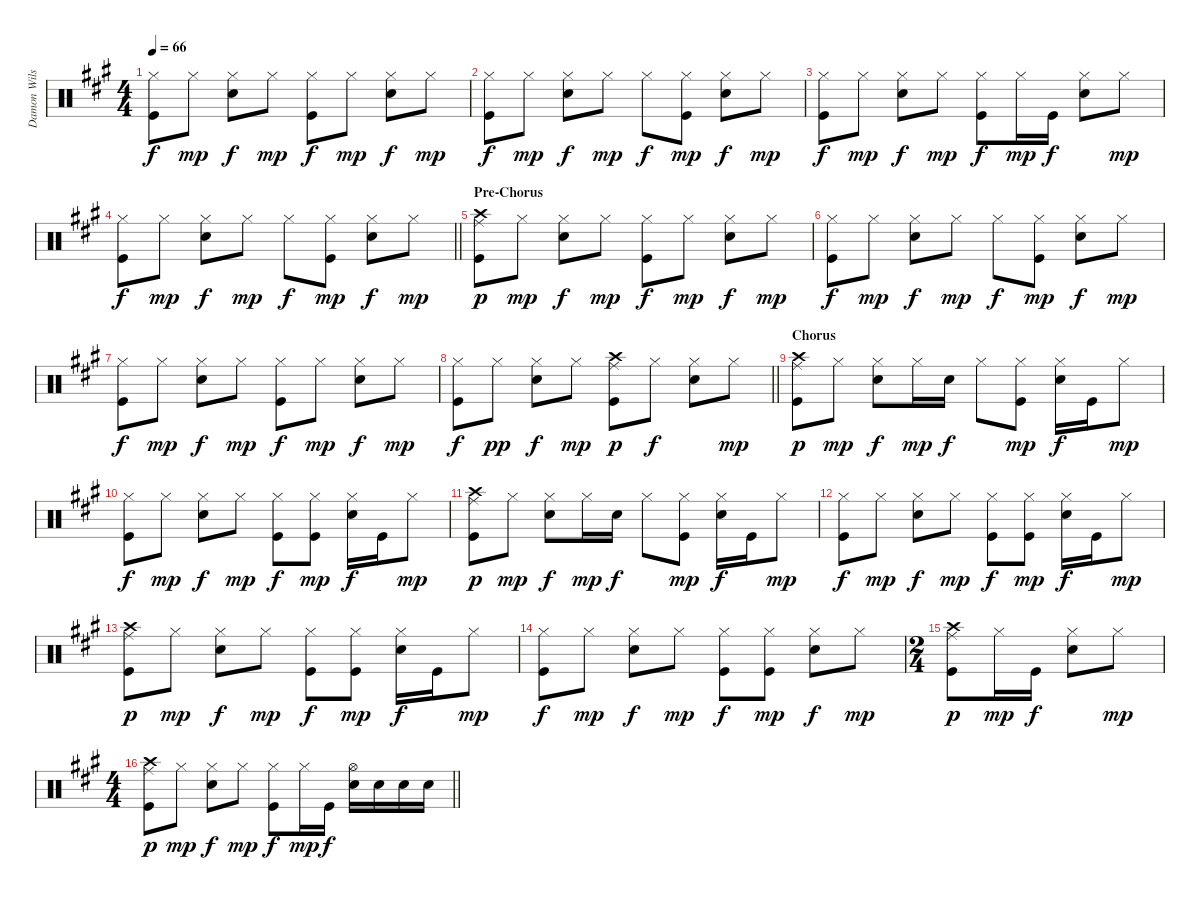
\track ("Damon Wilson" "Damon Wils") {instrument percussion}
\staff {score}
\articulation defaults
\ts (4 4)
\tempo 66
\clef neutral
\ks f#minor
("Hi-Hat (closed)" "Kick (hit)").8{dy f} "Hi-Hat (closed)".8{dy mp} ("Hi-Hat (closed)" "Electric Snare (hit)").8{dy f} "Hi-Hat (closed)".8{dy mp} ("Hi-Hat (closed)" "Kick (hit)").8{dy f} "Hi-Hat (closed)".8{dy mp} ("Hi-Hat (closed)" "Electric Snare (hit)").8{dy f} "Hi-Hat (closed)".8{dy mp} |
("Hi-Hat (closed)" "Kick (hit)").8{dy f} "Hi-Hat (closed)".8{dy mp} ("Hi-Hat (closed)" "Electric Snare (hit)").8{dy f} "Hi-Hat (closed)".8{dy mp} "Hi-Hat (closed)".8{dy f} ("Hi-Hat (closed)" "Kick (hit)").8{dy mp} ("Hi-Hat (closed)" "Electric Snare (hit)").8{dy f} "Hi-Hat (closed)".8{dy mp} |
("Hi-Hat (closed)" "Kick (hit)").8{dy f} "Hi-Hat (closed)".8{dy mp} ("Hi-Hat (closed)" "Electric Snare (hit)").8{dy f} "Hi-Hat (closed)".8{dy mp} ("Hi-Hat (closed)" "Kick (hit)").8{dy f} "Hi-Hat (closed)".16{dy mp} "Kick (hit)".16{dy f} ("Hi-Hat (closed)" "Electric Snare (hit)").8 "Hi-Hat (closed)".8{dy mp} |
\barLineRight lightlight
("Hi-Hat (closed)" "Kick (hit)").8{dy f} "Hi-Hat (closed)".8{dy mp} ("Hi-Hat (closed)" "Electric Snare (hit)").8{dy f} "Hi-Hat (closed)".8{dy mp} "Hi-Hat (closed)".8{dy f} ("Hi-Hat (closed)" "Kick (hit)").8{dy mp} ("Hi-Hat (closed)" "Electric Snare (hit)").8{dy f} "Hi-Hat (closed)".8{dy mp} |
\section ("" "Pre-Chorus")
("Ride (middle)" "Crash high (hit)" "Kick (hit)").8{dy p} "Hi-Hat (closed)".8{dy mp} ("Hi-Hat (closed)" "Electric Snare (hit)").8{dy f} "Hi-Hat (closed)".8{dy mp} ("Hi-Hat (closed)" "Kick (hit)").8{dy f} "Hi-Hat (closed)".8{dy mp} ("Hi-Hat (closed)" "Electric Snare (hit)").8{dy f} "Hi-Hat (closed)".8{dy mp} |
("Hi-Hat (closed)" "Kick (hit)").8{dy f} "Hi-Hat (closed)".8{dy mp} ("Hi-Hat (closed)" "Electric Snare (hit)").8{dy f} "Hi-Hat (closed)".8{dy mp} "Hi-Hat (closed)".8{dy f} ("Hi-Hat (closed)" "Kick (hit)").8{dy mp} ("Hi-Hat (closed)" "Electric Snare (hit)").8{dy f} "Hi-Hat (closed)".8{dy mp} |
("Hi-Hat (closed)" "Kick (hit)").8{dy f} "Hi-Hat (closed)".8{dy mp} ("Hi-Hat (closed)" "Electric Snare (hit)").8{dy f} "Hi-Hat (closed)".8{dy mp} ("Hi-Hat (closed)" "Kick (hit)").8{dy f} "Hi-Hat (closed)".8{dy mp} ("Hi-Hat (closed)" "Electric Snare (hit)").8{dy f} "Hi-Hat (closed)".8{dy mp} |
\barLineRight lightlight
("Hi-Hat (closed)" "Kick (hit)").8{dy f} "Hi-Hat (closed)".8{dy pp} ("Hi-Hat (closed)" "Electric Snare (hit)").8{dy f} "Hi-Hat (closed)".8{dy mp} ("Ride (middle)" "Crash high (hit)" "Kick (hit)").8{dy p} "Hi-Hat (closed)".8{dy f} ("Hi-Hat (closed)" "Electric Snare (hit)").8 "Hi-Hat (closed)".8{dy mp} |
\section ("" "Chorus")
("Ride (middle)" "Crash high (hit)" "Kick (hit)").8{dy p} "Hi-Hat (closed)".8{dy mp} ("Hi-Hat (closed)" "Electric Snare (hit)").8{dy f} "Hi-Hat (closed)".16{dy mp} "Electric Snare (hit)".16{dy f} "Hi-Hat (closed)".8 ("Hi-Hat (closed)" "Kick (hit)").8{dy mp} ("Hi-Hat (closed)" "Electric Snare (hit)").16{dy f} "Kick (hit)".16 "Hi-Hat (closed)".8{dy mp} |
("Hi-Hat (closed)" "Kick (hit)").8{dy f} "Hi-Hat (closed)".8{dy mp} ("Hi-Hat (closed)" "Electric Snare (hit)").8{dy f} "Hi-Hat (closed)".8{dy mp} ("Hi-Hat (closed)" "Kick (hit)").8{dy f} ("Hi-Hat (closed)" "Kick (hit)").8{dy mp} ("Hi-Hat (closed)" "Electric Snare (hit)").16{dy f} "Kick (hit)".16 "Hi-Hat (closed)".8{dy mp} |
("Ride (middle)" "Crash high (hit)" "Kick (hit)").8{dy p} "Hi-Hat (closed)".8{dy mp} ("Hi-Hat (closed)" "Electric Snare (hit)").8{dy f} "Hi-Hat (closed)".16{dy mp} "Electric Snare (hit)".16{dy f} "Hi-Hat (closed)".8 ("Hi-Hat (closed)" "Kick (hit)").8{dy mp} ("Hi-Hat (closed)" "Electric Snare (hit)").16{dy f} "Kick (hit)".16 "Hi-Hat (closed)".8{dy mp} |
("Hi-Hat (closed)" "Kick (hit)").8{dy f} "Hi-Hat (closed)".8{dy mp} ("Hi-Hat (closed)" "Electric Snare (hit)").8{dy f} "Hi-Hat (closed)".8{dy mp} ("Hi-Hat (closed)" "Kick (hit)").8{dy f} ("Hi-Hat (closed)" "Kick (hit)").8{dy mp} ("Hi-Hat (closed)" "Electric Snare (hit)").16{dy f} "Kick (hit)".16 "Hi-Hat (closed)".8{dy mp} |
("Ride (middle)" "Crash high (hit)" "Kick (hit)").8{dy p} "Hi-Hat (closed)".8{dy mp} ("Hi-Hat (closed)" "Electric Snare (hit)").8{dy f} "Hi-Hat (closed)".8{dy mp} ("Hi-Hat (closed)" "Kick (hit)").8{dy f} ("Hi-Hat (closed)" "Kick (hit)").8{dy mp} ("Hi-Hat (closed)" "Electric Snare (hit)").16{dy f} "Kick (hit)".16 "Hi-Hat (closed)".8{dy mp} |
("Hi-Hat (closed)" "Kick (hit)").8{dy f} "Hi-Hat (closed)".8{dy mp} ("Hi-Hat (closed)" "Electric Snare (hit)").8{dy f} "Hi-Hat (closed)".8{dy mp} ("Hi-Hat (closed)" "Kick (hit)").8{dy f} ("Hi-Hat (closed)" "Kick (hit)").8{dy mp} ("Hi-Hat (closed)" "Electric Snare (hit)").8{dy f} "Hi-Hat (closed)".8{dy mp} |
\ts (2 4)
("Ride (middle)" "Crash high (hit)" "Kick (hit)").8{dy p} "Hi-Hat (closed)".16{dy mp} "Kick (hit)".16{dy f} ("Hi-Hat (closed)" "Electric Snare (hit)").8 "Hi-Hat (closed)".8{dy mp} |
\ts (4 4)
\barLineRight lightlight
("Ride (middle)" "Crash high (hit)" "Kick (hit)").8{dy p} "Hi-Hat (closed)".8{dy mp} ("Hi-Hat (closed)" "Electric Snare (hit)").8{dy f} "Hi-Hat (closed)".8{dy mp} ("Hi-Hat (closed)" "Kick (hit)").8{dy f} "Hi-Hat (closed)".16{dy mp} "Kick (hit)".16{dy f} ("Hi-Hat (open)" "Electric Snare (hit)").16 "Electric Snare (hit)".16 "Electric Snare (hit)".16 "Electric Snare (hit)".16
